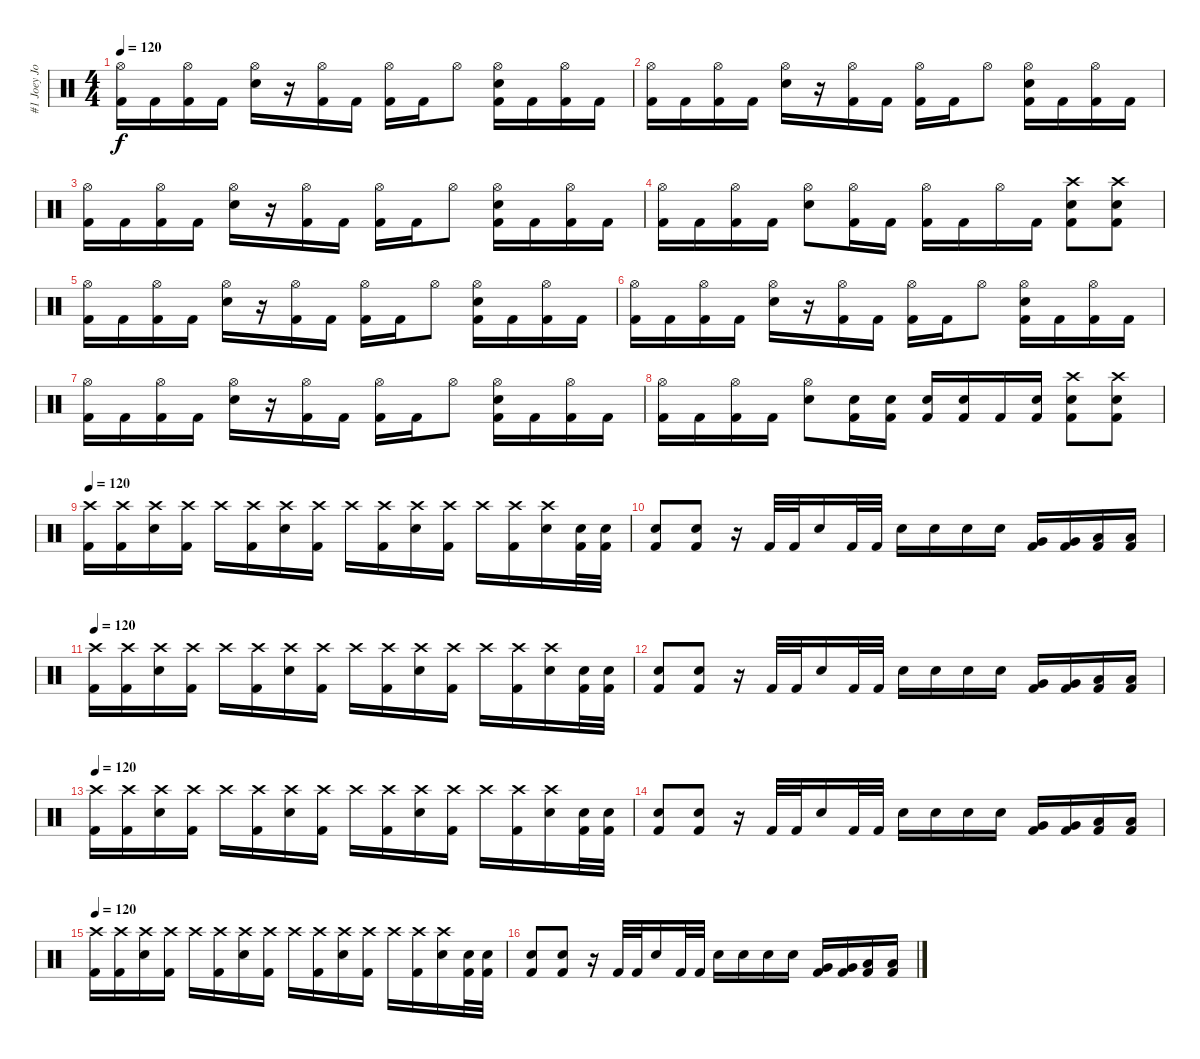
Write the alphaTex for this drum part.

\track ("#1 Joey Jordison" "#1 Joey Jo") {instrument percussion}
\staff {score}
\articulation defaults
\ts (4 4)
\tempo 120
\clef neutral
\ks c
("Hi-Hat (open)" "Kick (hit) 2").16{dy f} "Kick (hit) 2".16 ("Hi-Hat (open)" "Kick (hit) 2").16 "Kick (hit) 2".16 ("Hi-Hat (open)" "Electric Snare (hit)").16 r.16 ("Hi-Hat (open)" "Kick (hit) 2").16 "Kick (hit) 2".16 ("Hi-Hat (open)" "Kick (hit) 2").16 "Kick (hit) 2".16 "Hi-Hat (open)".8 ("Hi-Hat (open)" "Electric Snare (hit)" "Kick (hit) 2").16 "Kick (hit) 2".16 ("Hi-Hat (open)" "Kick (hit) 2").16 "Kick (hit) 2".16 |
("Hi-Hat (open)" "Kick (hit) 2").16 "Kick (hit) 2".16 ("Hi-Hat (open)" "Kick (hit) 2").16 "Kick (hit) 2".16 ("Hi-Hat (open)" "Electric Snare (hit)").16 r.16 ("Hi-Hat (open)" "Kick (hit) 2").16 "Kick (hit) 2".16 ("Hi-Hat (open)" "Kick (hit) 2").16 "Kick (hit) 2".16 "Hi-Hat (open)".8 ("Hi-Hat (open)" "Electric Snare (hit)" "Kick (hit) 2").16 "Kick (hit) 2".16 ("Hi-Hat (open)" "Kick (hit) 2").16 "Kick (hit) 2".16 |
("Hi-Hat (open)" "Kick (hit) 2").16 "Kick (hit) 2".16 ("Hi-Hat (open)" "Kick (hit) 2").16 "Kick (hit) 2".16 ("Hi-Hat (open)" "Electric Snare (hit)").16 r.16 ("Hi-Hat (open)" "Kick (hit) 2").16 "Kick (hit) 2".16 ("Hi-Hat (open)" "Kick (hit) 2").16 "Kick (hit) 2".16 "Hi-Hat (open)".8 ("Hi-Hat (open)" "Electric Snare (hit)" "Kick (hit) 2").16 "Kick (hit) 2".16 ("Hi-Hat (open)" "Kick (hit) 2").16 "Kick (hit) 2".16 |
("Hi-Hat (open)" "Kick (hit) 2").16 "Kick (hit) 2".16 ("Hi-Hat (open)" "Kick (hit) 2").16 "Kick (hit) 2".16 ("Hi-Hat (open)" "Electric Snare (hit)").8 ("Hi-Hat (open)" "Kick (hit) 2").16 "Kick (hit) 2".16 ("Hi-Hat (open)" "Kick (hit) 2").16 "Kick (hit) 2".16 "Hi-Hat (open)".16 "Kick (hit) 2".16 ("Electric Snare (hit)" "Crash high (hit)" "Kick (hit) 2").8 ("Electric Snare (hit)" "Crash high (hit)" "Kick (hit) 2").8 |
("Hi-Hat (open)" "Kick (hit) 2").16 "Kick (hit) 2".16 ("Hi-Hat (open)" "Kick (hit) 2").16 "Kick (hit) 2".16 ("Hi-Hat (open)" "Electric Snare (hit)").16 r.16 ("Hi-Hat (open)" "Kick (hit) 2").16 "Kick (hit) 2".16 ("Hi-Hat (open)" "Kick (hit) 2").16 "Kick (hit) 2".16 "Hi-Hat (open)".8 ("Hi-Hat (open)" "Electric Snare (hit)" "Kick (hit) 2").16 "Kick (hit) 2".16 ("Hi-Hat (open)" "Kick (hit) 2").16 "Kick (hit) 2".16 |
("Hi-Hat (open)" "Kick (hit) 2").16 "Kick (hit) 2".16 ("Hi-Hat (open)" "Kick (hit) 2").16 "Kick (hit) 2".16 ("Hi-Hat (open)" "Electric Snare (hit)").16 r.16 ("Hi-Hat (open)" "Kick (hit) 2").16 "Kick (hit) 2".16 ("Hi-Hat (open)" "Kick (hit) 2").16 "Kick (hit) 2".16 "Hi-Hat (open)".8 ("Hi-Hat (open)" "Electric Snare (hit)" "Kick (hit) 2").16 "Kick (hit) 2".16 ("Hi-Hat (open)" "Kick (hit) 2").16 "Kick (hit) 2".16 |
("Hi-Hat (open)" "Kick (hit) 2").16 "Kick (hit) 2".16 ("Hi-Hat (open)" "Kick (hit) 2").16 "Kick (hit) 2".16 ("Hi-Hat (open)" "Electric Snare (hit)").16 r.16 ("Hi-Hat (open)" "Kick (hit) 2").16 "Kick (hit) 2".16 ("Hi-Hat (open)" "Kick (hit) 2").16 "Kick (hit) 2".16 "Hi-Hat (open)".8 ("Hi-Hat (open)" "Electric Snare (hit)" "Kick (hit) 2").16 "Kick (hit) 2".16 ("Hi-Hat (open)" "Kick (hit) 2").16 "Kick (hit) 2".16 |
("Hi-Hat (open)" "Kick (hit) 2").16 "Kick (hit) 2".16 ("Hi-Hat (open)" "Kick (hit) 2").16 "Kick (hit) 2".16 ("Hi-Hat (open)" "Electric Snare (hit)").8 ("Electric Snare (hit)" "Kick (hit) 2").16 ("Electric Snare (hit)" "Kick (hit) 2").16 ("Electric Snare (hit)" "Kick (hit) 2").16 ("Electric Snare (hit)" "Kick (hit) 2").16 "Kick (hit) 2".16 ("Electric Snare (hit)" "Kick (hit) 2").16 ("Electric Snare (hit)" "Crash high (hit)" "Kick (hit) 2").8 ("Electric Snare (hit)" "Crash high (hit)" "Kick (hit) 2").8 |
\tempo 120
("Crash high (hit)" "Kick (hit) 2").16 ("Crash high (hit)" "Kick (hit) 2").16 ("Crash high (hit)" "Electric Snare (hit)").16 ("Crash high (hit)" "Kick (hit) 2").16 "Crash high (hit)".16 ("Crash high (hit)" "Kick (hit) 2").16 ("Crash high (hit)" "Electric Snare (hit)").16 ("Crash high (hit)" "Kick (hit) 2").16 "Crash high (hit)".16 ("Crash high (hit)" "Kick (hit) 2").16 ("Crash high (hit)" "Electric Snare (hit)").16 ("Crash high (hit)" "Kick (hit) 2").16 "Crash high (hit)".16 ("Crash high (hit)" "Kick (hit) 2").16 ("Crash high (hit)" "Electric Snare (hit)").16 ("Electric Snare (hit)" "Kick (hit) 2").32 ("Electric Snare (hit)" "Kick (hit) 2").32 |
("Electric Snare (hit)" "Kick (hit) 2").8 ("Electric Snare (hit)" "Kick (hit) 2").8 r.16 "Kick (hit) 2".32 "Kick (hit) 2".32 "Electric Snare (hit)".16 "Kick (hit) 2".32 "Kick (hit) 2".32 "Electric Snare (hit)".16 "Electric Snare (hit)".16 "Snare (hit) 2".16 "Snare (hit) 2".16 ("Very Low Tom (hit)" "Kick (hit) 2").16 ("Very Low Tom (hit)" "Kick (hit) 2").16 ("Low Floor Tom (hit)" "Kick (hit) 2").16 ("Low Floor Tom (hit)" "Kick (hit) 2").16 |
\tempo 120
("Crash high (hit)" "Kick (hit) 2").16 ("Crash high (hit)" "Kick (hit) 2").16 ("Crash high (hit)" "Electric Snare (hit)").16 ("Crash high (hit)" "Kick (hit) 2").16 "Crash high (hit)".16 ("Crash high (hit)" "Kick (hit) 2").16 ("Crash high (hit)" "Electric Snare (hit)").16 ("Crash high (hit)" "Kick (hit) 2").16 "Crash high (hit)".16 ("Crash high (hit)" "Kick (hit) 2").16 ("Crash high (hit)" "Electric Snare (hit)").16 ("Crash high (hit)" "Kick (hit) 2").16 "Crash high (hit)".16 ("Crash high (hit)" "Kick (hit) 2").16 ("Crash high (hit)" "Electric Snare (hit)").16 ("Electric Snare (hit)" "Kick (hit) 2").32 ("Electric Snare (hit)" "Kick (hit) 2").32 |
("Electric Snare (hit)" "Kick (hit) 2").8 ("Electric Snare (hit)" "Kick (hit) 2").8 r.16 "Kick (hit) 2".32 "Kick (hit) 2".32 "Electric Snare (hit)".16 "Kick (hit) 2".32 "Kick (hit) 2".32 "Electric Snare (hit)".16 "Electric Snare (hit)".16 "Snare (hit) 2".16 "Snare (hit) 2".16 ("Very Low Tom (hit)" "Kick (hit) 2").16 ("Very Low Tom (hit)" "Kick (hit) 2").16 ("Low Floor Tom (hit)" "Kick (hit) 2").16 ("Low Floor Tom (hit)" "Kick (hit) 2").16 |
\tempo 120
("Crash high (hit)" "Kick (hit) 2").16 ("Crash high (hit)" "Kick (hit) 2").16 ("Crash high (hit)" "Electric Snare (hit)").16 ("Crash high (hit)" "Kick (hit) 2").16 "Crash high (hit)".16 ("Crash high (hit)" "Kick (hit) 2").16 ("Crash high (hit)" "Electric Snare (hit)").16 ("Crash high (hit)" "Kick (hit) 2").16 "Crash high (hit)".16 ("Crash high (hit)" "Kick (hit) 2").16 ("Crash high (hit)" "Electric Snare (hit)").16 ("Crash high (hit)" "Kick (hit) 2").16 "Crash high (hit)".16 ("Crash high (hit)" "Kick (hit) 2").16 ("Crash high (hit)" "Electric Snare (hit)").16 ("Electric Snare (hit)" "Kick (hit) 2").32 ("Electric Snare (hit)" "Kick (hit) 2").32 |
("Electric Snare (hit)" "Kick (hit) 2").8 ("Electric Snare (hit)" "Kick (hit) 2").8 r.16 "Kick (hit) 2".32 "Kick (hit) 2".32 "Electric Snare (hit)".16 "Kick (hit) 2".32 "Kick (hit) 2".32 "Electric Snare (hit)".16 "Electric Snare (hit)".16 "Snare (hit) 2".16 "Snare (hit) 2".16 ("Very Low Tom (hit)" "Kick (hit) 2").16 ("Very Low Tom (hit)" "Kick (hit) 2").16 ("Low Floor Tom (hit)" "Kick (hit) 2").16 ("Low Floor Tom (hit)" "Kick (hit) 2").16 |
\tempo 120
("Crash high (hit)" "Kick (hit) 2").16 ("Crash high (hit)" "Kick (hit) 2").16 ("Crash high (hit)" "Electric Snare (hit)").16 ("Crash high (hit)" "Kick (hit) 2").16 "Crash high (hit)".16 ("Crash high (hit)" "Kick (hit) 2").16 ("Crash high (hit)" "Electric Snare (hit)").16 ("Crash high (hit)" "Kick (hit) 2").16 "Crash high (hit)".16 ("Crash high (hit)" "Kick (hit) 2").16 ("Crash high (hit)" "Electric Snare (hit)").16 ("Crash high (hit)" "Kick (hit) 2").16 "Crash high (hit)".16 ("Crash high (hit)" "Kick (hit) 2").16 ("Crash high (hit)" "Electric Snare (hit)").16 ("Electric Snare (hit)" "Kick (hit) 2").32 ("Electric Snare (hit)" "Kick (hit) 2").32 |
("Electric Snare (hit)" "Kick (hit) 2").8 ("Electric Snare (hit)" "Kick (hit) 2").8 r.16 "Kick (hit) 2".32 "Kick (hit) 2".32 "Electric Snare (hit)".16 "Kick (hit) 2".32 "Kick (hit) 2".32 "Electric Snare (hit)".16 "Electric Snare (hit)".16 "Snare (hit) 2".16 "Snare (hit) 2".16 ("Very Low Tom (hit)" "Kick (hit) 2").16 ("Very Low Tom (hit)" "Kick (hit) 2").16 ("Low Floor Tom (hit)" "Kick (hit) 2").16 ("Low Floor Tom (hit)" "Kick (hit) 2").16
